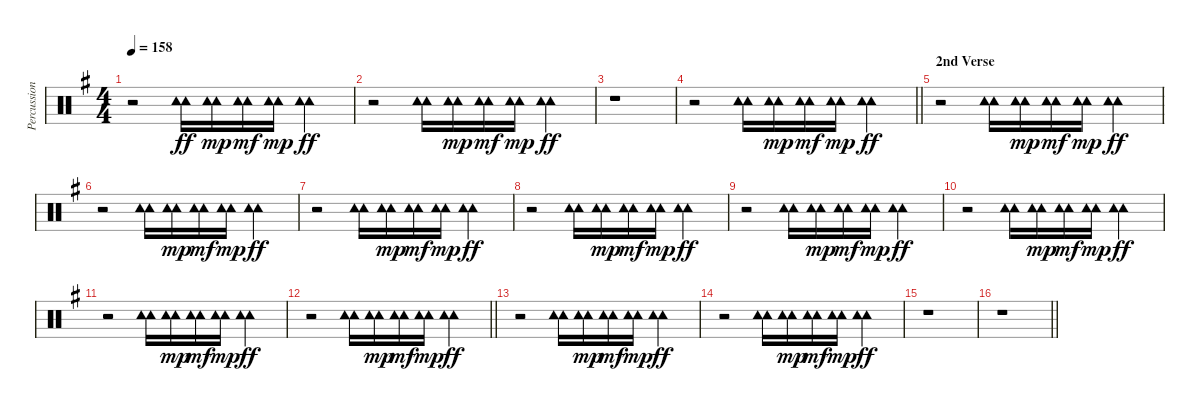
\track ("Percussion" "Percussion") {instrument percussion}
\staff {score}
\articulation defaults
\ts (4 4)
\tempo 158
\clef neutral
\ks g
r.2{dy ff} ("Tambourine (hit)" "Tambourine (hit)").16 ("Tambourine (hit)" "Tambourine (hit)").16{dy mp} ("Tambourine (hit)" "Tambourine (hit)").16{dy mf} ("Tambourine (hit)" "Tambourine (hit)").16{dy mp} ("Tambourine (hit)" "Tambourine (hit)").4{dy ff} |
r.2 ("Tambourine (hit)" "Tambourine (hit)").16 ("Tambourine (hit)" "Tambourine (hit)").16{dy mp} ("Tambourine (hit)" "Tambourine (hit)").16{dy mf} ("Tambourine (hit)" "Tambourine (hit)").16{dy mp} ("Tambourine (hit)" "Tambourine (hit)").4{dy ff} |
r.1 |
\barLineRight lightlight
r.2 ("Tambourine (hit)" "Tambourine (hit)").16 ("Tambourine (hit)" "Tambourine (hit)").16{dy mp} ("Tambourine (hit)" "Tambourine (hit)").16{dy mf} ("Tambourine (hit)" "Tambourine (hit)").16{dy mp} ("Tambourine (hit)" "Tambourine (hit)").4{dy ff} |
\section ("" "2nd Verse")
r.2 ("Tambourine (hit)" "Tambourine (hit)").16 ("Tambourine (hit)" "Tambourine (hit)").16{dy mp} ("Tambourine (hit)" "Tambourine (hit)").16{dy mf} ("Tambourine (hit)" "Tambourine (hit)").16{dy mp} ("Tambourine (hit)" "Tambourine (hit)").4{dy ff} |
r.2 ("Tambourine (hit)" "Tambourine (hit)").16 ("Tambourine (hit)" "Tambourine (hit)").16{dy mp} ("Tambourine (hit)" "Tambourine (hit)").16{dy mf} ("Tambourine (hit)" "Tambourine (hit)").16{dy mp} ("Tambourine (hit)" "Tambourine (hit)").4{dy ff} |
r.2 ("Tambourine (hit)" "Tambourine (hit)").16 ("Tambourine (hit)" "Tambourine (hit)").16{dy mp} ("Tambourine (hit)" "Tambourine (hit)").16{dy mf} ("Tambourine (hit)" "Tambourine (hit)").16{dy mp} ("Tambourine (hit)" "Tambourine (hit)").4{dy ff} |
r.2 ("Tambourine (hit)" "Tambourine (hit)").16 ("Tambourine (hit)" "Tambourine (hit)").16{dy mp} ("Tambourine (hit)" "Tambourine (hit)").16{dy mf} ("Tambourine (hit)" "Tambourine (hit)").16{dy mp} ("Tambourine (hit)" "Tambourine (hit)").4{dy ff} |
r.2 ("Tambourine (hit)" "Tambourine (hit)").16 ("Tambourine (hit)" "Tambourine (hit)").16{dy mp} ("Tambourine (hit)" "Tambourine (hit)").16{dy mf} ("Tambourine (hit)" "Tambourine (hit)").16{dy mp} ("Tambourine (hit)" "Tambourine (hit)").4{dy ff} |
r.2 ("Tambourine (hit)" "Tambourine (hit)").16 ("Tambourine (hit)" "Tambourine (hit)").16{dy mp} ("Tambourine (hit)" "Tambourine (hit)").16{dy mf} ("Tambourine (hit)" "Tambourine (hit)").16{dy mp} ("Tambourine (hit)" "Tambourine (hit)").4{dy ff} |
r.2 ("Tambourine (hit)" "Tambourine (hit)").16 ("Tambourine (hit)" "Tambourine (hit)").16{dy mp} ("Tambourine (hit)" "Tambourine (hit)").16{dy mf} ("Tambourine (hit)" "Tambourine (hit)").16{dy mp} ("Tambourine (hit)" "Tambourine (hit)").4{dy ff} |
\barLineRight lightlight
r.2 ("Tambourine (hit)" "Tambourine (hit)").16 ("Tambourine (hit)" "Tambourine (hit)").16{dy mp} ("Tambourine (hit)" "Tambourine (hit)").16{dy mf} ("Tambourine (hit)" "Tambourine (hit)").16{dy mp} ("Tambourine (hit)" "Tambourine (hit)").4{dy ff} |
r.2 ("Tambourine (hit)" "Tambourine (hit)").16 ("Tambourine (hit)" "Tambourine (hit)").16{dy mp} ("Tambourine (hit)" "Tambourine (hit)").16{dy mf} ("Tambourine (hit)" "Tambourine (hit)").16{dy mp} ("Tambourine (hit)" "Tambourine (hit)").4{dy ff} |
r.2 ("Tambourine (hit)" "Tambourine (hit)").16 ("Tambourine (hit)" "Tambourine (hit)").16{dy mp} ("Tambourine (hit)" "Tambourine (hit)").16{dy mf} ("Tambourine (hit)" "Tambourine (hit)").16{dy mp} ("Tambourine (hit)" "Tambourine (hit)").4{dy ff} |
r.1 |
\barLineRight lightlight
r.1
